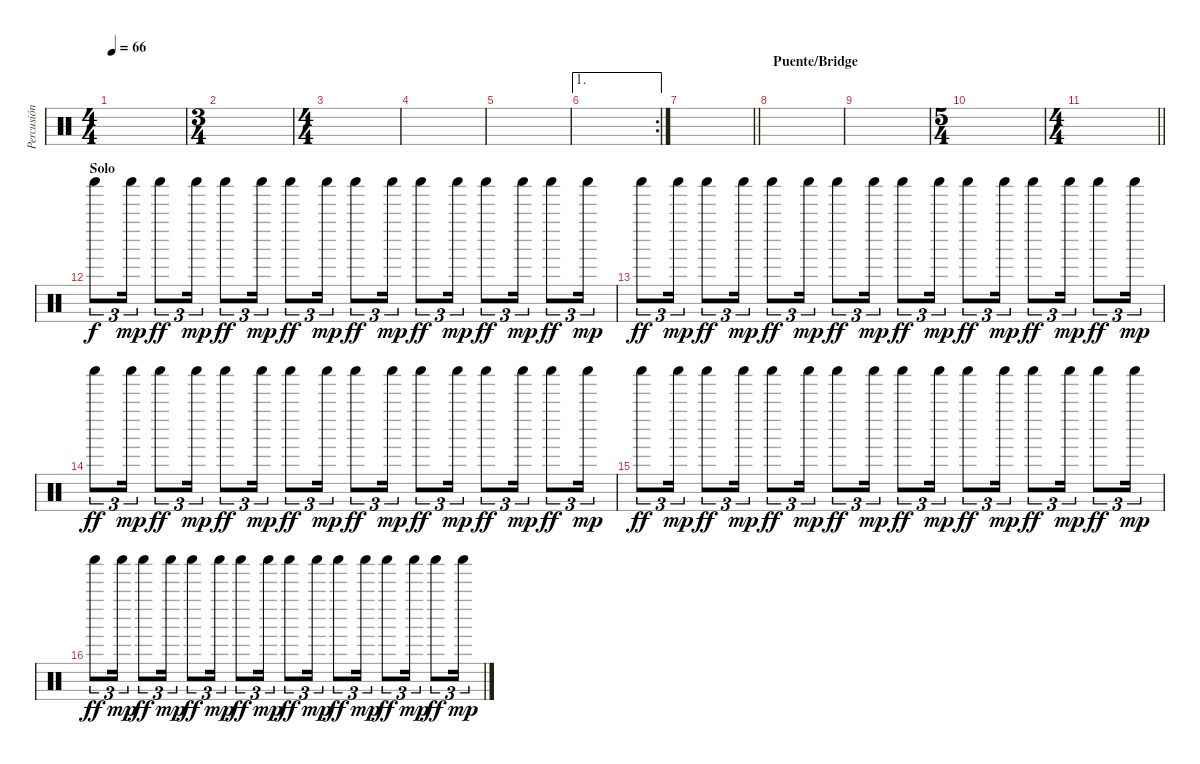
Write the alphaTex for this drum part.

\track ("Percusión (Brit Turner)" "Percusión ") {instrument percussion}
\staff {score}
\articulation defaults
\ts (4 4)
\tempo 66
\clef neutral
\ks c
|
\ts (3 4)
|
\ts (4 4)
|
|
|
\ae 1
\rc 2
|
\barLineRight lightlight
|
\section ("" "Puente/Bridge")
|
|
\ts (5 4)
|
\ts (4 4)
\barLineRight lightlight
|
\section ("" "Solo")
"Shaker (hit)".8{tu (3 2)} "Shaker (hit)".16{tu (3 2) dy mp} "Shaker (hit)".8{tu (3 2) dy ff} "Shaker (hit)".16{tu (3 2) dy mp} "Shaker (hit)".8{tu (3 2) dy ff} "Shaker (hit)".16{tu (3 2) dy mp} "Shaker (hit)".8{tu (3 2) dy ff} "Shaker (hit)".16{tu (3 2) dy mp} "Shaker (hit)".8{tu (3 2) dy ff} "Shaker (hit)".16{tu (3 2) dy mp} "Shaker (hit)".8{tu (3 2) dy ff} "Shaker (hit)".16{tu (3 2) dy mp} "Shaker (hit)".8{tu (3 2) dy ff} "Shaker (hit)".16{tu (3 2) dy mp} "Shaker (hit)".8{tu (3 2) dy ff} "Shaker (hit)".16{tu (3 2) dy mp} |
"Shaker (hit)".8{tu (3 2) dy ff} "Shaker (hit)".16{tu (3 2) dy mp} "Shaker (hit)".8{tu (3 2) dy ff} "Shaker (hit)".16{tu (3 2) dy mp} "Shaker (hit)".8{tu (3 2) dy ff} "Shaker (hit)".16{tu (3 2) dy mp} "Shaker (hit)".8{tu (3 2) dy ff} "Shaker (hit)".16{tu (3 2) dy mp} "Shaker (hit)".8{tu (3 2) dy ff} "Shaker (hit)".16{tu (3 2) dy mp} "Shaker (hit)".8{tu (3 2) dy ff} "Shaker (hit)".16{tu (3 2) dy mp} "Shaker (hit)".8{tu (3 2) dy ff} "Shaker (hit)".16{tu (3 2) dy mp} "Shaker (hit)".8{tu (3 2) dy ff} "Shaker (hit)".16{tu (3 2) dy mp} |
"Shaker (hit)".8{tu (3 2) dy ff} "Shaker (hit)".16{tu (3 2) dy mp} "Shaker (hit)".8{tu (3 2) dy ff} "Shaker (hit)".16{tu (3 2) dy mp} "Shaker (hit)".8{tu (3 2) dy ff} "Shaker (hit)".16{tu (3 2) dy mp} "Shaker (hit)".8{tu (3 2) dy ff} "Shaker (hit)".16{tu (3 2) dy mp} "Shaker (hit)".8{tu (3 2) dy ff} "Shaker (hit)".16{tu (3 2) dy mp} "Shaker (hit)".8{tu (3 2) dy ff} "Shaker (hit)".16{tu (3 2) dy mp} "Shaker (hit)".8{tu (3 2) dy ff} "Shaker (hit)".16{tu (3 2) dy mp} "Shaker (hit)".8{tu (3 2) dy ff} "Shaker (hit)".16{tu (3 2) dy mp} |
"Shaker (hit)".8{tu (3 2) dy ff} "Shaker (hit)".16{tu (3 2) dy mp} "Shaker (hit)".8{tu (3 2) dy ff} "Shaker (hit)".16{tu (3 2) dy mp} "Shaker (hit)".8{tu (3 2) dy ff} "Shaker (hit)".16{tu (3 2) dy mp} "Shaker (hit)".8{tu (3 2) dy ff} "Shaker (hit)".16{tu (3 2) dy mp} "Shaker (hit)".8{tu (3 2) dy ff} "Shaker (hit)".16{tu (3 2) dy mp} "Shaker (hit)".8{tu (3 2) dy ff} "Shaker (hit)".16{tu (3 2) dy mp} "Shaker (hit)".8{tu (3 2) dy ff} "Shaker (hit)".16{tu (3 2) dy mp} "Shaker (hit)".8{tu (3 2) dy ff} "Shaker (hit)".16{tu (3 2) dy mp} |
"Shaker (hit)".8{tu (3 2) dy ff} "Shaker (hit)".16{tu (3 2) dy mp} "Shaker (hit)".8{tu (3 2) dy ff} "Shaker (hit)".16{tu (3 2) dy mp} "Shaker (hit)".8{tu (3 2) dy ff} "Shaker (hit)".16{tu (3 2) dy mp} "Shaker (hit)".8{tu (3 2) dy ff} "Shaker (hit)".16{tu (3 2) dy mp} "Shaker (hit)".8{tu (3 2) dy ff} "Shaker (hit)".16{tu (3 2) dy mp} "Shaker (hit)".8{tu (3 2) dy ff} "Shaker (hit)".16{tu (3 2) dy mp} "Shaker (hit)".8{tu (3 2) dy ff} "Shaker (hit)".16{tu (3 2) dy mp} "Shaker (hit)".8{tu (3 2) dy ff} "Shaker (hit)".16{tu (3 2) dy mp}
